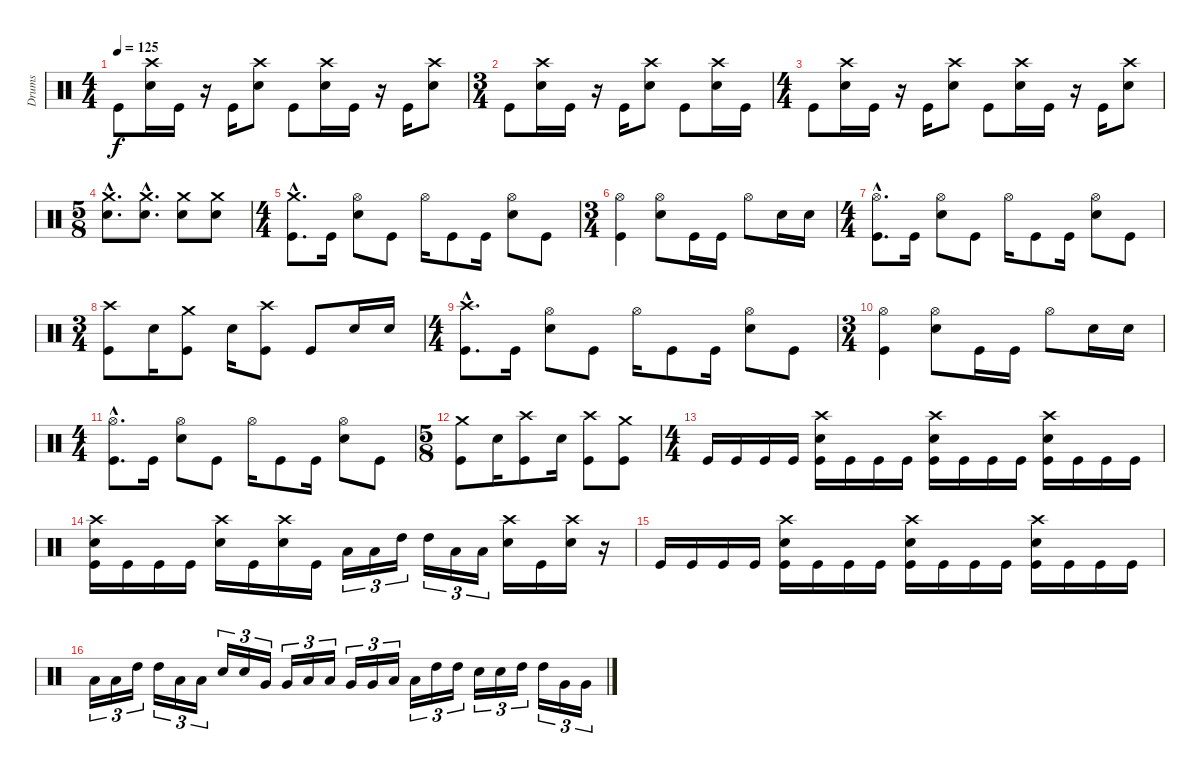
\track ("Drums" "Drums") {instrument percussion}
\staff {score}
\articulation defaults
\ts (4 4)
\tempo 125
\clef neutral
\ks c "Kick (hit)".8{dy f}
("Snare (hit) 2" "Crash high (hit)").16 "Kick (hit)".16 r.16 "Kick (hit)".16 ("Snare (hit) 2" "Crash high (hit)").8 "Kick (hit)".8 ("Snare (hit) 2" "Crash high (hit)").16 "Kick (hit)".16 r.16 "Kick (hit)".16 ("Snare (hit) 2" "Crash high (hit)").8 |
\ts (3 4)
"Kick (hit)".8 ("Snare (hit) 2" "Crash high (hit)").16 "Kick (hit)".16 r.16 "Kick (hit)".16 ("Snare (hit) 2" "Crash high (hit)").8 "Kick (hit)".8 ("Snare (hit) 2" "Crash high (hit)").16 "Kick (hit)".16 |
\ts (4 4)
"Kick (hit)".8 ("Snare (hit) 2" "Crash high (hit)").16 "Kick (hit)".16 r.16 "Kick (hit)".16 ("Snare (hit) 2" "Crash high (hit)").8 "Kick (hit)".8 ("Snare (hit) 2" "Crash high (hit)").16 "Kick (hit)".16 r.16 "Kick (hit)".16 ("Snare (hit) 2" "Crash high (hit)").8 |
\ts (5 8)
("Snare (hit) 2"{hac} "Crash medium (hit)"{hac}).8{d} ("Snare (hit) 2"{hac} "Crash medium (hit)"{hac}).8{d} ("Snare (hit) 2" "Crash medium (hit)").8 ("Snare (hit) 2" "Crash medium (hit)").8 |
\ts (4 4)
("Kick (hit)"{hac} "Crash medium (hit)"{hac}).8{d} "Kick (hit)".16 ("Snare (hit) 2" "Hi-Hat (open)").8 "Kick (hit)".8 "Hi-Hat (open)".16 "Kick (hit)".8 "Kick (hit)".16 ("Snare (hit) 2" "Hi-Hat (open)").8 "Kick (hit)".8 |
\ts (3 4)
("Kick (hit)" "Hi-Hat (open)").4 ("Snare (hit) 2" "Hi-Hat (open)").8 "Kick (hit)".16 "Kick (hit)".16 "Hi-Hat (open)".8 "Snare (hit) 2".16 "Snare (hit) 2".16 |
\ts (4 4)
("Kick (hit)"{hac} "Hi-Hat (open)"{hac}).8{d} "Kick (hit)".16 ("Snare (hit) 2" "Hi-Hat (open)").8 "Kick (hit)".8 "Hi-Hat (open)".16 "Kick (hit)".8 "Kick (hit)".16 ("Snare (hit) 2" "Hi-Hat (open)").8 "Kick (hit)".8 |
\ts (3 4)
("Kick (hit)" "Crash high (hit)").8 "Snare (hit) 2".16 ("Kick (hit)" "Crash medium (hit)").8 "Snare (hit) 2".16 ("Kick (hit)" "Crash high (hit)").8 "Kick (hit)".8 "Snare (hit) 2".16 "Snare (hit) 2".16 |
\ts (4 4)
("Kick (hit)"{hac} "Crash high (hit)"{hac}).8{d} "Kick (hit)".16 ("Snare (hit) 2" "Hi-Hat (open)").8 "Kick (hit)".8 "Hi-Hat (open)".16 "Kick (hit)".8 "Kick (hit)".16 ("Snare (hit) 2" "Hi-Hat (open)").8 "Kick (hit)".8 |
\ts (3 4)
("Kick (hit)" "Hi-Hat (open)").4 ("Snare (hit) 2" "Hi-Hat (open)").8 "Kick (hit)".16 "Kick (hit)".16 "Hi-Hat (open)".8 "Snare (hit) 2".16 "Snare (hit) 2".16 |
\ts (4 4)
("Kick (hit)"{hac} "Hi-Hat (open)"{hac}).8{d} "Kick (hit)".16 ("Snare (hit) 2" "Hi-Hat (open)").8 "Kick (hit)".8 "Hi-Hat (open)".16 "Kick (hit)".8 "Kick (hit)".16 ("Snare (hit) 2" "Hi-Hat (open)").8 "Kick (hit)".8 |
\ts (5 8)
("Kick (hit)" "Crash medium (hit)").8 "Snare (hit) 2".16 ("Kick (hit)" "Crash high (hit)").8 "Snare (hit) 2".16 ("Kick (hit)" "Crash high (hit)").8 ("Kick (hit)" "Crash medium (hit)").8 |
\ts (4 4)
"Kick (hit)".16 "Kick (hit)".16 "Kick (hit)".16 "Kick (hit)".16 ("Kick (hit)" "Snare (hit) 2" "Crash high (hit)").16 "Kick (hit)".16 "Kick (hit)".16 "Kick (hit)".16 ("Kick (hit)" "Snare (hit) 2" "Crash high (hit)").16 "Kick (hit)".16 "Kick (hit)".16 "Kick (hit)".16 ("Kick (hit)" "Snare (hit) 2" "Crash high (hit)").16 "Kick (hit)".16 "Kick (hit)".16 "Kick (hit)".16 |
("Kick (hit)" "Snare (hit) 2" "Crash high (hit)").16 "Kick (hit)".16 "Kick (hit)".16 "Kick (hit)".16 ("Snare (hit) 2" "Crash high (hit)").16 "Kick (hit)".16 ("Snare (hit) 2" "Crash high (hit)").16 "Kick (hit)".16 "Low Tom (hit)".16{tu (3 2)} "Low Tom (hit)".16{tu (3 2)} "High Tom (hit)".16{tu (3 2)} "High Tom (hit)".16{tu (3 2)} "Low Tom (hit)".16{tu (3 2)} "Low Tom (hit)".16{tu (3 2)} ("Snare (hit) 2" "Crash high (hit)").16 "Kick (hit)".16 ("Snare (hit) 2" "Crash high (hit)").16 r.16 |
"Kick (hit)".16 "Kick (hit)".16 "Kick (hit)".16 "Kick (hit)".16 ("Kick (hit)" "Snare (hit) 2" "Crash high (hit)").16 "Kick (hit)".16 "Kick (hit)".16 "Kick (hit)".16 ("Kick (hit)" "Snare (hit) 2" "Crash high (hit)").16 "Kick (hit)".16 "Kick (hit)".16 "Kick (hit)".16 ("Kick (hit)" "Snare (hit) 2" "Crash high (hit)").16 "Kick (hit)".16 "Kick (hit)".16 "Kick (hit)".16 |
"Low Tom (hit)".16{tu (3 2)} "Low Tom (hit)".16{tu (3 2)} "High Tom (hit)".16{tu (3 2)} "High Tom (hit)".16{tu (3 2)} "Low Tom (hit)".16{tu (3 2)} "Low Tom (hit)".16{tu (3 2)} "Snare (hit) 2".16{tu (3 2)} "Snare (hit) 2".16{tu (3 2)} "Very Low Tom (hit)".16{tu (3 2)} "Very Low Tom (hit)".16{tu (3 2)} "Low Floor Tom (hit)".16{tu (3 2)} "Low Floor Tom (hit)".16{tu (3 2)} "Very Low Tom (hit)".16{tu (3 2)} "Very Low Tom (hit)".16{tu (3 2)} "Low Tom (hit)".16{tu (3 2)} "Low Tom (hit)".16{tu (3 2)} "High Tom (hit)".16{tu (3 2)} "High Tom (hit)".16{tu (3 2)} "Snare (hit) 2".16{tu (3 2)} "Snare (hit) 2".16{tu (3 2)} "High Tom (hit)".16{tu (3 2)} "High Tom (hit)".16{tu (3 2)} "Very Low Tom (hit)".16{tu (3 2)} "Very Low Tom (hit)".16{tu (3 2)}
